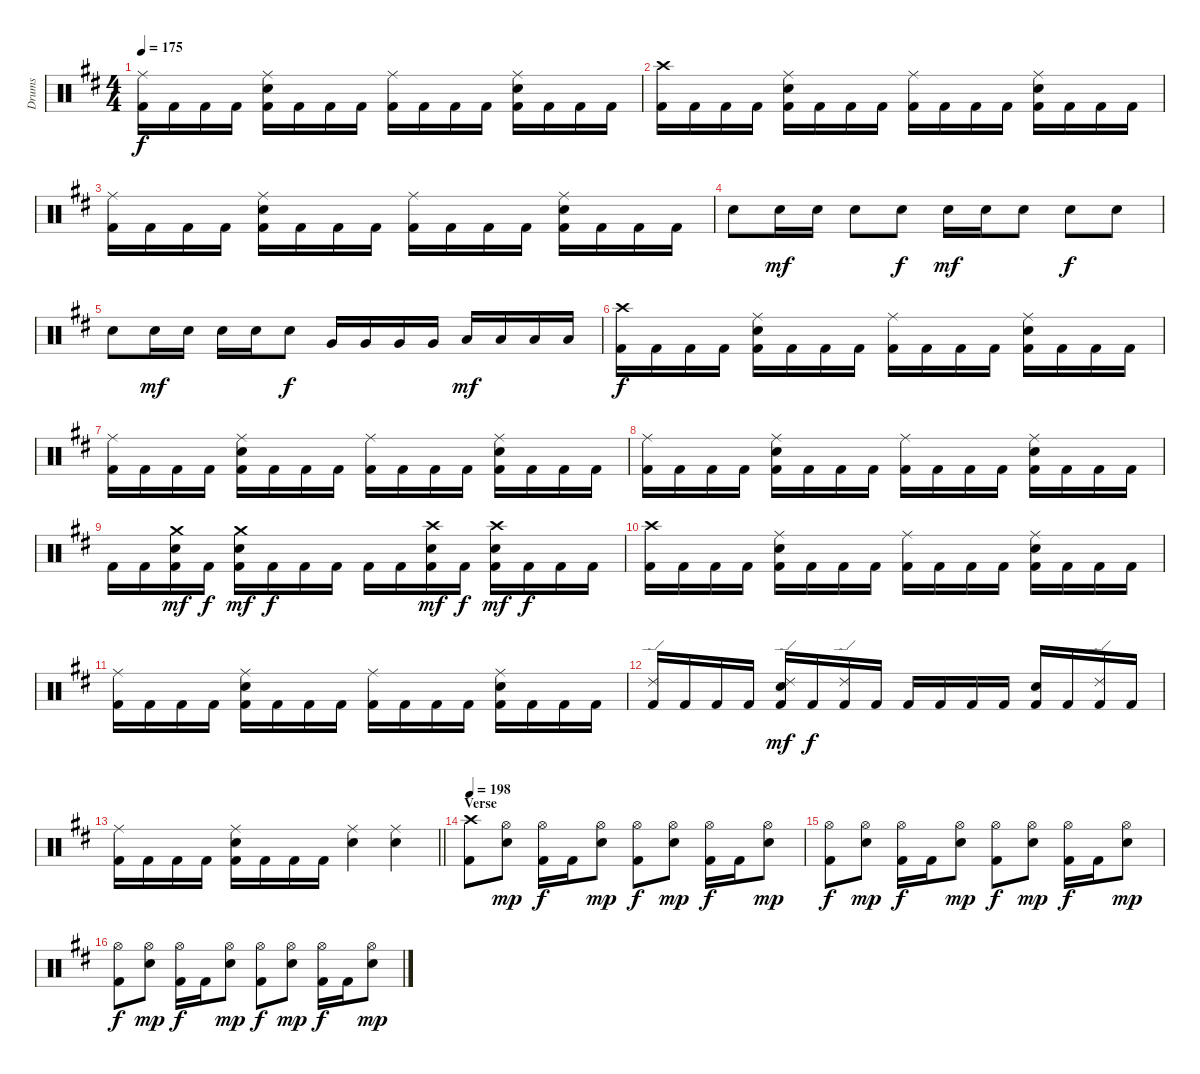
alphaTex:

\track ("Drums" "Drums") {instrument percussion}
\staff {score}
\articulation defaults
\ts (4 4)
\tempo 175
\clef neutral
\ks d
("Ride (middle)" "Kick (hit) 2").16{dy f} "Kick (hit) 2".16 "Kick (hit) 2".16 "Kick (hit) 2".16 ("Ride (middle)" "Snare (hit) 2" "Kick (hit) 2").16 "Kick (hit) 2".16 "Kick (hit) 2".16 "Kick (hit) 2".16 ("Ride (middle)" "Kick (hit) 2").16 "Kick (hit) 2".16 "Kick (hit) 2".16 "Kick (hit) 2".16 ("Ride (middle)" "Snare (hit) 2" "Kick (hit) 2").16 "Kick (hit) 2".16 "Kick (hit) 2".16 "Kick (hit) 2".16 |
("Crash high (hit)" "Kick (hit) 2").16 "Kick (hit) 2".16 "Kick (hit) 2".16 "Kick (hit) 2".16 ("Ride (middle)" "Snare (hit) 2" "Kick (hit) 2").16 "Kick (hit) 2".16 "Kick (hit) 2".16 "Kick (hit) 2".16 ("Ride (middle)" "Kick (hit) 2").16 "Kick (hit) 2".16 "Kick (hit) 2".16 "Kick (hit) 2".16 ("Ride (middle)" "Snare (hit) 2" "Kick (hit) 2").16 "Kick (hit) 2".16 "Kick (hit) 2".16 "Kick (hit) 2".16 |
("Ride (middle)" "Kick (hit) 2").16 "Kick (hit) 2".16 "Kick (hit) 2".16 "Kick (hit) 2".16 ("Ride (middle)" "Snare (hit) 2" "Kick (hit) 2").16 "Kick (hit) 2".16 "Kick (hit) 2".16 "Kick (hit) 2".16 ("Ride (middle)" "Kick (hit) 2").16 "Kick (hit) 2".16 "Kick (hit) 2".16 "Kick (hit) 2".16 ("Ride (middle)" "Snare (hit) 2" "Kick (hit) 2").16 "Kick (hit) 2".16 "Kick (hit) 2".16 "Kick (hit) 2".16 |
"Snare (hit) 2".8 "Snare (hit) 2".16{dy mf} "Snare (hit) 2".16 "Snare (hit) 2".8 "Snare (hit) 2".8{dy f} "Snare (hit) 2".16{dy mf} "Snare (hit) 2".16 "Snare (hit) 2".8 "Snare (hit) 2".8{dy f} "Snare (hit) 2".8 |
"Snare (hit) 2".8 "Snare (hit) 2".16{dy mf} "Snare (hit) 2".16 "Snare (hit) 2".16 "Snare (hit) 2".16 "Snare (hit) 2".8{dy f} "Very Low Tom (hit)".16 "Very Low Tom (hit)".16 "Very Low Tom (hit)".16 "Very Low Tom (hit)".16 "Low Floor Tom (hit)".16{dy mf} "Low Floor Tom (hit)".16 "Low Floor Tom (hit)".16 "Low Floor Tom (hit)".16 |
("Crash high (hit)" "Kick (hit) 2").16{dy f} "Kick (hit) 2".16 "Kick (hit) 2".16 "Kick (hit) 2".16 ("Ride (middle)" "Snare (hit) 2" "Kick (hit) 2").16 "Kick (hit) 2".16 "Kick (hit) 2".16 "Kick (hit) 2".16 ("Ride (middle)" "Kick (hit) 2").16 "Kick (hit) 2".16 "Kick (hit) 2".16 "Kick (hit) 2".16 ("Ride (middle)" "Snare (hit) 2" "Kick (hit) 2").16 "Kick (hit) 2".16 "Kick (hit) 2".16 "Kick (hit) 2".16 |
("Ride (middle)" "Kick (hit) 2").16 "Kick (hit) 2".16 "Kick (hit) 2".16 "Kick (hit) 2".16 ("Ride (middle)" "Snare (hit) 2" "Kick (hit) 2").16 "Kick (hit) 2".16 "Kick (hit) 2".16 "Kick (hit) 2".16 ("Ride (middle)" "Kick (hit) 2").16 "Kick (hit) 2".16 "Kick (hit) 2".16 "Kick (hit) 2".16 ("Ride (middle)" "Snare (hit) 2" "Kick (hit) 2").16 "Kick (hit) 2".16 "Kick (hit) 2".16 "Kick (hit) 2".16 |
("Ride (middle)" "Kick (hit) 2").16 "Kick (hit) 2".16 "Kick (hit) 2".16 "Kick (hit) 2".16 ("Ride (middle)" "Snare (hit) 2" "Kick (hit) 2").16 "Kick (hit) 2".16 "Kick (hit) 2".16 "Kick (hit) 2".16 ("Ride (middle)" "Kick (hit) 2").16 "Kick (hit) 2".16 "Kick (hit) 2".16 "Kick (hit) 2".16 ("Ride (middle)" "Snare (hit) 2" "Kick (hit) 2").16 "Kick (hit) 2".16 "Kick (hit) 2".16 "Kick (hit) 2".16 |
"Kick (hit) 2".16 "Kick (hit) 2".16 ("Crash medium (hit)" "Snare (hit) 2" "Kick (hit) 2").16{dy mf} "Kick (hit) 2".16{dy f} ("Crash medium (hit)" "Snare (hit) 2" "Kick (hit) 2").16{dy mf} "Kick (hit) 2".16{dy f} "Kick (hit) 2".16 "Kick (hit) 2".16 "Kick (hit) 2".16 "Kick (hit) 2".16 ("Crash high (hit)" "Snare (hit) 2" "Kick (hit) 2").16{dy mf} "Kick (hit) 2".16{dy f} ("Crash high (hit)" "Snare (hit) 2" "Kick (hit) 2").16{dy mf} "Kick (hit) 2".16{dy f} "Kick (hit) 2".16 "Kick (hit) 2".16 |
("Crash high (hit)" "Kick (hit) 2").16 "Kick (hit) 2".16 "Kick (hit) 2".16 "Kick (hit) 2".16 ("Ride (middle)" "Snare (hit) 2" "Kick (hit) 2").16 "Kick (hit) 2".16 "Kick (hit) 2".16 "Kick (hit) 2".16 ("Ride (middle)" "Kick (hit) 2").16 "Kick (hit) 2".16 "Kick (hit) 2".16 "Kick (hit) 2".16 ("Ride (middle)" "Snare (hit) 2" "Kick (hit) 2").16 "Kick (hit) 2".16 "Kick (hit) 2".16 "Kick (hit) 2".16 |
("Ride (middle)" "Kick (hit) 2").16 "Kick (hit) 2".16 "Kick (hit) 2".16 "Kick (hit) 2".16 ("Ride (middle)" "Snare (hit) 2" "Kick (hit) 2").16 "Kick (hit) 2".16 "Kick (hit) 2".16 "Kick (hit) 2".16 ("Ride (middle)" "Kick (hit) 2").16 "Kick (hit) 2".16 "Kick (hit) 2".16 "Kick (hit) 2".16 ("Ride (middle)" "Snare (hit) 2" "Kick (hit) 2").16 "Kick (hit) 2".16 "Kick (hit) 2".16 "Kick (hit) 2".16 |
("Ride (edge) 2" "Kick (hit) 2").16 "Kick (hit) 2".16 "Kick (hit) 2".16 "Kick (hit) 2".16 ("Ride (edge) 2" "Snare (hit) 2" "Kick (hit) 2").16{dy mf} "Kick (hit) 2".16{dy f} ("Ride (edge) 2" "Kick (hit) 2").16 "Kick (hit) 2".16 "Kick (hit) 2".16 "Kick (hit) 2".16 "Kick (hit) 2".16 "Kick (hit) 2".16 ("Snare (hit) 2" "Kick (hit) 2").16 "Kick (hit) 2".16 ("Ride (edge) 2" "Kick (hit) 2").16 "Kick (hit) 2".16 |
\barLineRight lightlight
("Ride (middle)" "Kick (hit) 2").16 "Kick (hit) 2".16 "Kick (hit) 2".16 "Kick (hit) 2".16 ("Ride (middle)" "Snare (hit) 2" "Kick (hit) 2").16 "Kick (hit) 2".16 "Kick (hit) 2".16 "Kick (hit) 2".16 ("Ride (middle)" "Snare (hit) 2").4 ("Ride (middle)" "Snare (hit) 2").4 |
\section ("" "Verse ")
\tempo 198
("Crash high (hit)" "Kick (hit) 2").8 ("Hi-Hat (open)" "Snare (hit) 2").8{dy mp} ("Hi-Hat (open)" "Kick (hit) 2").16{dy f} "Kick (hit) 2".16 ("Hi-Hat (open)" "Snare (hit) 2").8{dy mp} ("Hi-Hat (open)" "Kick (hit) 2").8{dy f} ("Hi-Hat (open)" "Snare (hit) 2").8{dy mp} ("Hi-Hat (open)" "Kick (hit) 2").16{dy f} "Kick (hit) 2".16 ("Hi-Hat (open)" "Snare (hit) 2").8{dy mp} |
("Hi-Hat (open)" "Kick (hit) 2").8{dy f} ("Hi-Hat (open)" "Snare (hit) 2").8{dy mp} ("Hi-Hat (open)" "Kick (hit) 2").16{dy f} "Kick (hit) 2".16 ("Hi-Hat (open)" "Snare (hit) 2").8{dy mp} ("Hi-Hat (open)" "Kick (hit) 2").8{dy f} ("Hi-Hat (open)" "Snare (hit) 2").8{dy mp} ("Hi-Hat (open)" "Kick (hit) 2").16{dy f} "Kick (hit) 2".16 ("Hi-Hat (open)" "Snare (hit) 2").8{dy mp} |
("Hi-Hat (open)" "Kick (hit) 2").8{dy f} ("Hi-Hat (open)" "Snare (hit) 2").8{dy mp} ("Hi-Hat (open)" "Kick (hit) 2").16{dy f} "Kick (hit) 2".16 ("Hi-Hat (open)" "Snare (hit) 2").8{dy mp} ("Hi-Hat (open)" "Kick (hit) 2").8{dy f} ("Hi-Hat (open)" "Snare (hit) 2").8{dy mp} ("Hi-Hat (open)" "Kick (hit) 2").16{dy f} "Kick (hit) 2".16 ("Hi-Hat (open)" "Snare (hit) 2").8{dy mp}
